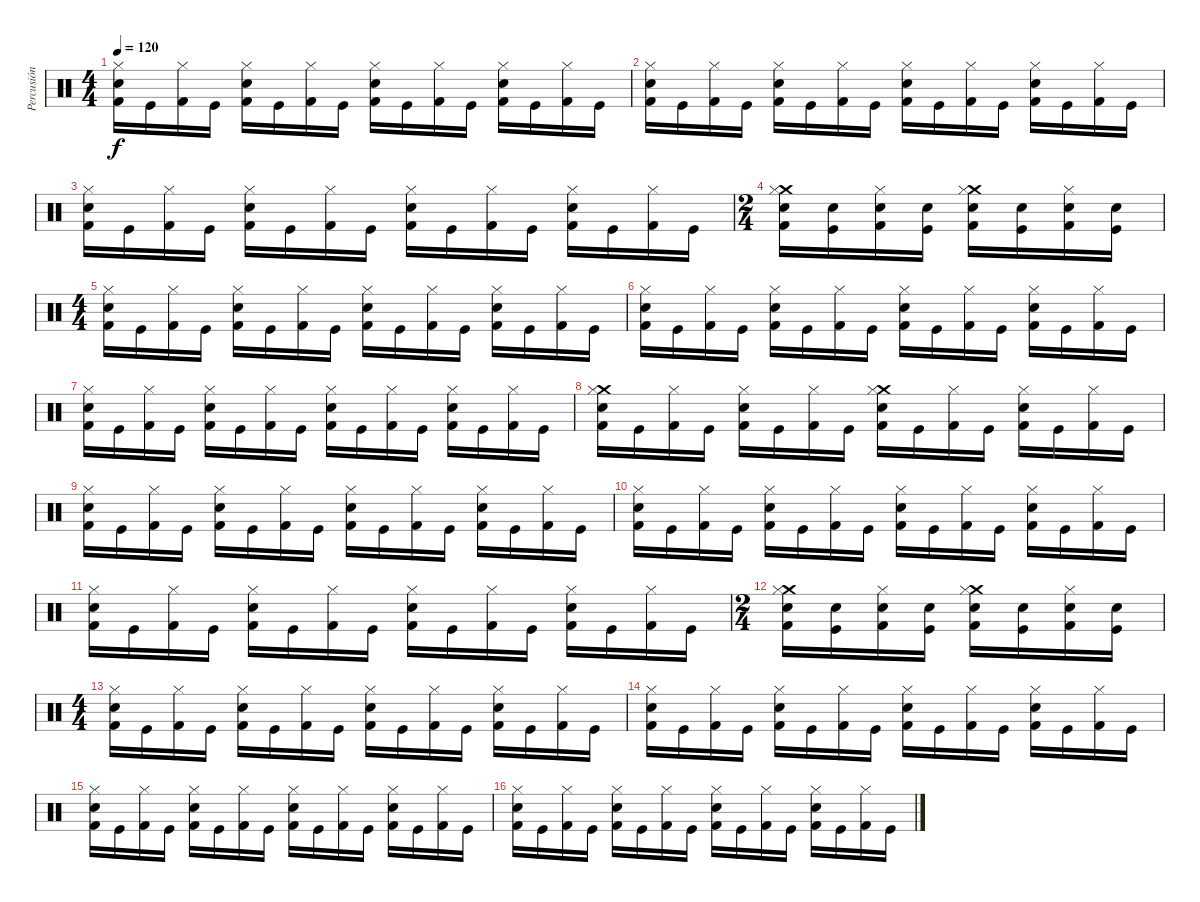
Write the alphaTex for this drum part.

\track ("Percusión" "Percusión") {instrument percussion}
\staff {score}
\articulation defaults
\ts (4 4)
\tempo 120
\clef neutral
\ks c
("Hi-Hat (closed)" "Snare (hit) 2" "Kick (hit) 2").16{dy f} "Kick (hit)".16 ("Hi-Hat (closed)" "Kick (hit) 2").16 "Kick (hit)".16 ("Hi-Hat (closed)" "Snare (hit) 2" "Kick (hit) 2").16 "Kick (hit)".16 ("Hi-Hat (closed)" "Kick (hit) 2").16 "Kick (hit)".16 ("Hi-Hat (closed)" "Snare (hit) 2" "Kick (hit) 2").16 "Kick (hit)".16 ("Hi-Hat (closed)" "Kick (hit) 2").16 "Kick (hit)".16 ("Hi-Hat (closed)" "Snare (hit) 2" "Kick (hit) 2").16 "Kick (hit)".16 ("Hi-Hat (closed)" "Kick (hit) 2").16 "Kick (hit)".16 |
("Hi-Hat (closed)" "Snare (hit) 2" "Kick (hit) 2").16 "Kick (hit)".16 ("Hi-Hat (closed)" "Kick (hit) 2").16 "Kick (hit)".16 ("Hi-Hat (closed)" "Snare (hit) 2" "Kick (hit) 2").16 "Kick (hit)".16 ("Hi-Hat (closed)" "Kick (hit) 2").16 "Kick (hit)".16 ("Hi-Hat (closed)" "Snare (hit) 2" "Kick (hit) 2").16 "Kick (hit)".16 ("Hi-Hat (closed)" "Kick (hit) 2").16 "Kick (hit)".16 ("Hi-Hat (closed)" "Snare (hit) 2" "Kick (hit) 2").16 "Kick (hit)".16 ("Hi-Hat (closed)" "Kick (hit) 2").16 "Kick (hit)".16 |
("Hi-Hat (closed)" "Snare (hit) 2" "Kick (hit) 2").16 "Kick (hit)".16 ("Hi-Hat (closed)" "Kick (hit) 2").16 "Kick (hit)".16 ("Hi-Hat (closed)" "Snare (hit) 2" "Kick (hit) 2").16 "Kick (hit)".16 ("Hi-Hat (closed)" "Kick (hit) 2").16 "Kick (hit)".16 ("Hi-Hat (closed)" "Snare (hit) 2" "Kick (hit) 2").16 "Kick (hit)".16 ("Hi-Hat (closed)" "Kick (hit) 2").16 "Kick (hit)".16 ("Hi-Hat (closed)" "Snare (hit) 2" "Kick (hit) 2").16 "Kick (hit)".16 ("Hi-Hat (closed)" "Kick (hit) 2").16 "Kick (hit)".16 |
\ts (2 4)
("Crash medium (hit)" "Hi-Hat (closed)" "Snare (hit) 2" "Kick (hit) 2").16 ("Snare (hit) 2" "Kick (hit)").16 ("Hi-Hat (closed)" "Snare (hit) 2" "Kick (hit) 2").16 ("Snare (hit) 2" "Kick (hit)").16 ("Crash medium (hit)" "Hi-Hat (closed)" "Snare (hit) 2" "Kick (hit) 2").16 ("Snare (hit) 2" "Kick (hit)").16 ("Hi-Hat (closed)" "Snare (hit) 2" "Kick (hit) 2").16 ("Snare (hit) 2" "Kick (hit)").16 |
\ts (4 4)
("Hi-Hat (closed)" "Snare (hit) 2" "Kick (hit) 2").16 "Kick (hit)".16 ("Hi-Hat (closed)" "Kick (hit) 2").16 "Kick (hit)".16 ("Hi-Hat (closed)" "Snare (hit) 2" "Kick (hit) 2").16 "Kick (hit)".16 ("Hi-Hat (closed)" "Kick (hit) 2").16 "Kick (hit)".16 ("Hi-Hat (closed)" "Snare (hit) 2" "Kick (hit) 2").16 "Kick (hit)".16 ("Hi-Hat (closed)" "Kick (hit) 2").16 "Kick (hit)".16 ("Hi-Hat (closed)" "Snare (hit) 2" "Kick (hit) 2").16 "Kick (hit)".16 ("Hi-Hat (closed)" "Kick (hit) 2").16 "Kick (hit)".16 |
("Hi-Hat (closed)" "Snare (hit) 2" "Kick (hit) 2").16 "Kick (hit)".16 ("Hi-Hat (closed)" "Kick (hit) 2").16 "Kick (hit)".16 ("Hi-Hat (closed)" "Snare (hit) 2" "Kick (hit) 2").16 "Kick (hit)".16 ("Hi-Hat (closed)" "Kick (hit) 2").16 "Kick (hit)".16 ("Hi-Hat (closed)" "Snare (hit) 2" "Kick (hit) 2").16 "Kick (hit)".16 ("Hi-Hat (closed)" "Kick (hit) 2").16 "Kick (hit)".16 ("Hi-Hat (closed)" "Snare (hit) 2" "Kick (hit) 2").16 "Kick (hit)".16 ("Hi-Hat (closed)" "Kick (hit) 2").16 "Kick (hit)".16 |
("Hi-Hat (closed)" "Snare (hit) 2" "Kick (hit) 2").16 "Kick (hit)".16 ("Hi-Hat (closed)" "Kick (hit) 2").16 "Kick (hit)".16 ("Hi-Hat (closed)" "Snare (hit) 2" "Kick (hit) 2").16 "Kick (hit)".16 ("Hi-Hat (closed)" "Kick (hit) 2").16 "Kick (hit)".16 ("Hi-Hat (closed)" "Snare (hit) 2" "Kick (hit) 2").16 "Kick (hit)".16 ("Hi-Hat (closed)" "Kick (hit) 2").16 "Kick (hit)".16 ("Hi-Hat (closed)" "Snare (hit) 2" "Kick (hit) 2").16 "Kick (hit)".16 ("Hi-Hat (closed)" "Kick (hit) 2").16 "Kick (hit)".16 |
("Crash medium (hit)" "Hi-Hat (closed)" "Snare (hit) 2" "Kick (hit) 2").16 "Kick (hit)".16 ("Hi-Hat (closed)" "Kick (hit) 2").16 "Kick (hit)".16 ("Hi-Hat (closed)" "Snare (hit) 2" "Kick (hit) 2").16 "Kick (hit)".16 ("Hi-Hat (closed)" "Kick (hit) 2").16 "Kick (hit)".16 ("Crash medium (hit)" "Hi-Hat (closed)" "Snare (hit) 2" "Kick (hit) 2").16 "Kick (hit)".16 ("Hi-Hat (closed)" "Kick (hit) 2").16 "Kick (hit)".16 ("Hi-Hat (closed)" "Snare (hit) 2" "Kick (hit) 2").16 "Kick (hit)".16 ("Hi-Hat (closed)" "Kick (hit) 2").16 "Kick (hit)".16 |
("Hi-Hat (closed)" "Snare (hit) 2" "Kick (hit) 2").16 "Kick (hit)".16 ("Hi-Hat (closed)" "Kick (hit) 2").16 "Kick (hit)".16 ("Hi-Hat (closed)" "Snare (hit) 2" "Kick (hit) 2").16 "Kick (hit)".16 ("Hi-Hat (closed)" "Kick (hit) 2").16 "Kick (hit)".16 ("Hi-Hat (closed)" "Snare (hit) 2" "Kick (hit) 2").16 "Kick (hit)".16 ("Hi-Hat (closed)" "Kick (hit) 2").16 "Kick (hit)".16 ("Hi-Hat (closed)" "Snare (hit) 2" "Kick (hit) 2").16 "Kick (hit)".16 ("Hi-Hat (closed)" "Kick (hit) 2").16 "Kick (hit)".16 |
("Hi-Hat (closed)" "Snare (hit) 2" "Kick (hit) 2").16 "Kick (hit)".16 ("Hi-Hat (closed)" "Kick (hit) 2").16 "Kick (hit)".16 ("Hi-Hat (closed)" "Snare (hit) 2" "Kick (hit) 2").16 "Kick (hit)".16 ("Hi-Hat (closed)" "Kick (hit) 2").16 "Kick (hit)".16 ("Hi-Hat (closed)" "Snare (hit) 2" "Kick (hit) 2").16 "Kick (hit)".16 ("Hi-Hat (closed)" "Kick (hit) 2").16 "Kick (hit)".16 ("Hi-Hat (closed)" "Snare (hit) 2" "Kick (hit) 2").16 "Kick (hit)".16 ("Hi-Hat (closed)" "Kick (hit) 2").16 "Kick (hit)".16 |
("Hi-Hat (closed)" "Snare (hit) 2" "Kick (hit) 2").16 "Kick (hit)".16 ("Hi-Hat (closed)" "Kick (hit) 2").16 "Kick (hit)".16 ("Hi-Hat (closed)" "Snare (hit) 2" "Kick (hit) 2").16 "Kick (hit)".16 ("Hi-Hat (closed)" "Kick (hit) 2").16 "Kick (hit)".16 ("Hi-Hat (closed)" "Snare (hit) 2" "Kick (hit) 2").16 "Kick (hit)".16 ("Hi-Hat (closed)" "Kick (hit) 2").16 "Kick (hit)".16 ("Hi-Hat (closed)" "Snare (hit) 2" "Kick (hit) 2").16 "Kick (hit)".16 ("Hi-Hat (closed)" "Kick (hit) 2").16 "Kick (hit)".16 |
\ts (2 4)
("Crash medium (hit)" "Hi-Hat (closed)" "Snare (hit) 2" "Kick (hit) 2").16 ("Snare (hit) 2" "Kick (hit)").16 ("Hi-Hat (closed)" "Snare (hit) 2" "Kick (hit) 2").16 ("Snare (hit) 2" "Kick (hit)").16 ("Crash medium (hit)" "Hi-Hat (closed)" "Snare (hit) 2" "Kick (hit) 2").16 ("Snare (hit) 2" "Kick (hit)").16 ("Hi-Hat (closed)" "Snare (hit) 2" "Kick (hit) 2").16 ("Snare (hit) 2" "Kick (hit)").16 |
\ts (4 4)
("Hi-Hat (closed)" "Snare (hit) 2" "Kick (hit) 2").16 "Kick (hit)".16 ("Hi-Hat (closed)" "Kick (hit) 2").16 "Kick (hit)".16 ("Hi-Hat (closed)" "Snare (hit) 2" "Kick (hit) 2").16 "Kick (hit)".16 ("Hi-Hat (closed)" "Kick (hit) 2").16 "Kick (hit)".16 ("Hi-Hat (closed)" "Snare (hit) 2" "Kick (hit) 2").16 "Kick (hit)".16 ("Hi-Hat (closed)" "Kick (hit) 2").16 "Kick (hit)".16 ("Hi-Hat (closed)" "Snare (hit) 2" "Kick (hit) 2").16 "Kick (hit)".16 ("Hi-Hat (closed)" "Kick (hit) 2").16 "Kick (hit)".16 |
("Hi-Hat (closed)" "Snare (hit) 2" "Kick (hit) 2").16 "Kick (hit)".16 ("Hi-Hat (closed)" "Kick (hit) 2").16 "Kick (hit)".16 ("Hi-Hat (closed)" "Snare (hit) 2" "Kick (hit) 2").16 "Kick (hit)".16 ("Hi-Hat (closed)" "Kick (hit) 2").16 "Kick (hit)".16 ("Hi-Hat (closed)" "Snare (hit) 2" "Kick (hit) 2").16 "Kick (hit)".16 ("Hi-Hat (closed)" "Kick (hit) 2").16 "Kick (hit)".16 ("Hi-Hat (closed)" "Snare (hit) 2" "Kick (hit) 2").16 "Kick (hit)".16 ("Hi-Hat (closed)" "Kick (hit) 2").16 "Kick (hit)".16 |
("Hi-Hat (closed)" "Snare (hit) 2" "Kick (hit) 2").16 "Kick (hit)".16 ("Hi-Hat (closed)" "Kick (hit) 2").16 "Kick (hit)".16 ("Hi-Hat (closed)" "Snare (hit) 2" "Kick (hit) 2").16 "Kick (hit)".16 ("Hi-Hat (closed)" "Kick (hit) 2").16 "Kick (hit)".16 ("Hi-Hat (closed)" "Snare (hit) 2" "Kick (hit) 2").16 "Kick (hit)".16 ("Hi-Hat (closed)" "Kick (hit) 2").16 "Kick (hit)".16 ("Hi-Hat (closed)" "Snare (hit) 2" "Kick (hit) 2").16 "Kick (hit)".16 ("Hi-Hat (closed)" "Kick (hit) 2").16 "Kick (hit)".16 |
("Hi-Hat (closed)" "Snare (hit) 2" "Kick (hit) 2").16 "Kick (hit)".16 ("Hi-Hat (closed)" "Kick (hit) 2").16 "Kick (hit)".16 ("Hi-Hat (closed)" "Snare (hit) 2" "Kick (hit) 2").16 "Kick (hit)".16 ("Hi-Hat (closed)" "Kick (hit) 2").16 "Kick (hit)".16 ("Hi-Hat (closed)" "Snare (hit) 2" "Kick (hit) 2").16 "Kick (hit)".16 ("Hi-Hat (closed)" "Kick (hit) 2").16 "Kick (hit)".16 ("Hi-Hat (closed)" "Snare (hit) 2" "Kick (hit) 2").16 "Kick (hit)".16 ("Hi-Hat (closed)" "Kick (hit) 2").16 "Kick (hit)".16
